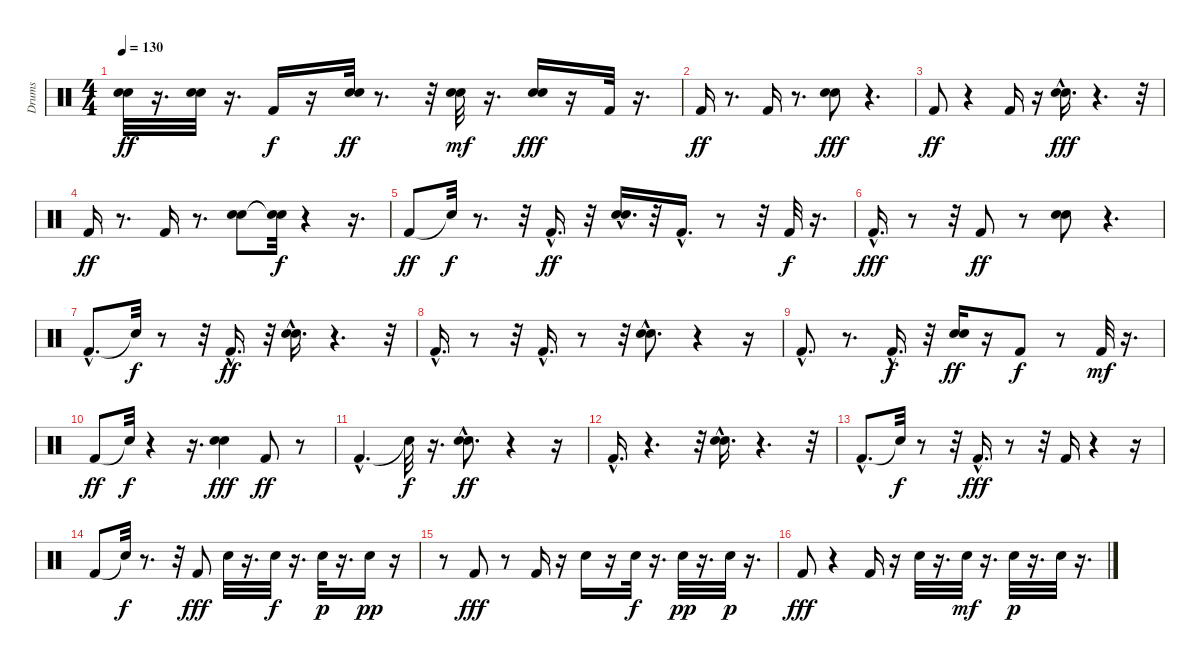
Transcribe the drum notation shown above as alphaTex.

\track ("Drums" "Drums") {instrument percussion}
\staff {score}
\articulation defaults
\ts (4 4)
\tempo 130
\clef neutral
\ks c
("Hand Clap (hit)" "Snare (hit) 2").32{dy ff} r.16{d} ("Hand Clap (hit)" "Snare (hit) 2").32 r.16{d} "Kick (hit) 2".16{dy f} r.16 ("Hand Clap (hit)" "Snare (hit) 2").32{dy ff} r.8{d} r.32 ("Hand Clap (hit)" "Snare (hit) 2").32{dy mf} r.16{d} ("Hand Clap (hit)" "Snare (hit) 2").16{dy fff} r.16 "Kick (hit) 2".32 r.16{d} |
"Kick (hit) 2".16{dy ff} r.8{d} "Kick (hit) 2".16 r.8{d} ("Hand Clap (hit)" "Snare (hit) 2").8{dy fff} r.4{d} |
"Kick (hit) 2".8{dy ff} r.4 "Kick (hit) 2".16 r.16 ("Snare (hit) 2"{hac} "Hand Clap (hit)"{hac}).16{d dy fff} r.4{d} r.32 |
"Kick (hit) 2".16{dy ff} r.8{d} "Kick (hit) 2".16 r.8{d} ("Hand Clap (hit)" "Snare (hit) 2").8 ("Snare (hit)"{t} "Snare (hit)"{t}).32{dy f} r.4 r.16{d} |
"Kick (hit) 2".8{dy ff} "Snare (hit)"{t}.32{dy f} r.8{d} r.32 "Kick (hit) 2"{hac}.16{d dy ff} r.32 ("Hand Clap (hit)"{hac} "Snare (hit) 2").16{d} r.32 "Kick (hit) 2"{hac}.16{d} r.8 r.32 "Kick (hit) 2".32{dy f} r.16{d} |
"Kick (hit) 2"{hac}.16{d dy fff} r.8 r.32 "Kick (hit) 2".8{dy ff} r.8 ("Hand Clap (hit)" "Snare (hit) 2").8 r.4{d} |
"Kick (hit) 2"{hac}.8{d} "Snare (hit)"{t}.32{dy f} r.8 r.32 "Kick (hit) 2"{hac}.16{d dy ff} r.32 ("Hand Clap (hit)" "Snare (hit) 2"{hac}).16{d} r.4{d} r.32 |
"Kick (hit) 2"{hac}.16{d} r.8 r.32 "Kick (hit) 2"{hac}.16{d} r.8 r.32 ("Hand Clap (hit)"{hac} "Snare (hit) 2"{hac}).8{d} r.4 r.16 |
"Kick (hit) 2"{hac}.8{d} r.8{d} "Kick (hit) 2"{hac}.16{d dy f} r.32 ("Hand Clap (hit)" "Snare (hit) 2").16{dy ff} r.16 "Kick (hit) 2".8{dy f} r.8 "Kick (hit) 2".32{dy mf} r.16{d} |
"Kick (hit) 2".8{dy ff} "Snare (hit)"{t}.32{dy f} r.4 r.16{d} ("Snare (hit) 2" "Hand Clap (hit)").4{dy fff} "Kick (hit) 2".8{dy ff} r.8 |
"Kick (hit) 2"{hac}.4{d} "Snare (hit)"{t}.32{dy f} r.16{d} ("Hand Clap (hit)"{hac} "Snare (hit) 2"{hac}).8{d dy ff} r.4 r.16 |
"Kick (hit) 2"{hac}.16{d} r.4{d} r.32 ("Hand Clap (hit)"{hac} "Snare (hit) 2"{hac}).16{d} r.4{d} r.32 |
"Kick (hit) 2"{hac}.8{d} "Snare (hit)"{t}.32{dy f} r.8 r.32 "Kick (hit) 2"{hac}.16{d dy fff} r.8 r.32 "Kick (hit) 2".16 r.4 r.16 |
"Kick (hit) 2".8 "Snare (hit)"{t}.32{dy f} r.8{d} r.32 "Kick (hit) 2".8{dy fff} "Hand Clap (hit)".32 r.16{d} "Hand Clap (hit)".32{dy f} r.16{d} "Hand Clap (hit)".32{dy p} r.16{d} "Hand Clap (hit)".16{dy pp} r.16 |
r.8 "Kick (hit) 2".8{dy fff} r.8 "Kick (hit) 2".16 r.16 "Hand Clap (hit)".16 r.16 "Hand Clap (hit)".32{dy f} r.16{d} "Hand Clap (hit)".32{dy pp} r.16{d} "Hand Clap (hit)".32{dy p} r.16{d} |
"Kick (hit) 2".8{dy fff} r.4 "Kick (hit) 2".16 r.16 "Hand Clap (hit)".32 r.16{d} "Hand Clap (hit)".32{dy mf} r.16{d} "Hand Clap (hit)".32{dy p} r.16{d} "Hand Clap (hit)".32 r.16{d}
